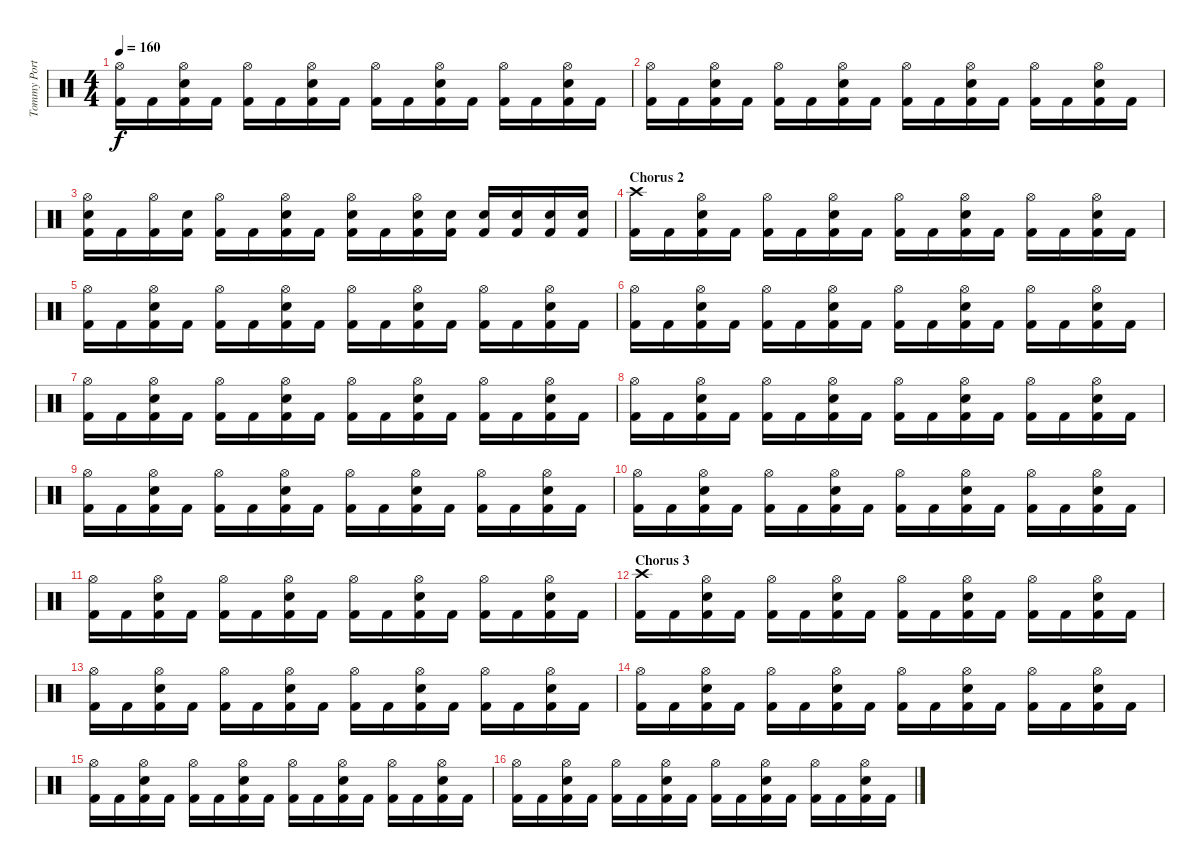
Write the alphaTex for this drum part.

\track ("Tommy Portimo" "Tommy Port") {instrument percussion}
\staff {score}
\articulation defaults
\ts (4 4)
\tempo 160
\clef neutral
\ks c
("Hi-Hat (open)" "Kick (hit) 2").16{dy f} "Kick (hit) 2".16 ("Hi-Hat (open)" "Snare (hit) 2" "Kick (hit) 2").16 "Kick (hit) 2".16 ("Hi-Hat (open)" "Kick (hit) 2").16 "Kick (hit) 2".16 ("Hi-Hat (open)" "Snare (hit) 2" "Kick (hit) 2").16 "Kick (hit) 2".16 ("Hi-Hat (open)" "Kick (hit) 2").16 "Kick (hit) 2".16 ("Hi-Hat (open)" "Snare (hit) 2" "Kick (hit) 2").16 "Kick (hit) 2".16 ("Hi-Hat (open)" "Kick (hit) 2").16 "Kick (hit) 2".16 ("Hi-Hat (open)" "Snare (hit) 2" "Kick (hit) 2").16 "Kick (hit) 2".16 |
("Hi-Hat (open)" "Kick (hit) 2").16 "Kick (hit) 2".16 ("Hi-Hat (open)" "Snare (hit) 2" "Kick (hit) 2").16 "Kick (hit) 2".16 ("Hi-Hat (open)" "Kick (hit) 2").16 "Kick (hit) 2".16 ("Hi-Hat (open)" "Snare (hit) 2" "Kick (hit) 2").16 "Kick (hit) 2".16 ("Hi-Hat (open)" "Kick (hit) 2").16 "Kick (hit) 2".16 ("Hi-Hat (open)" "Snare (hit) 2" "Kick (hit) 2").16 "Kick (hit) 2".16 ("Hi-Hat (open)" "Kick (hit) 2").16 "Kick (hit) 2".16 ("Hi-Hat (open)" "Snare (hit) 2" "Kick (hit) 2").16 "Kick (hit) 2".16 |
("Hi-Hat (open)" "Snare (hit) 2" "Kick (hit) 2").16 "Kick (hit) 2".16 ("Hi-Hat (open)" "Kick (hit) 2").16 ("Snare (hit) 2" "Kick (hit) 2").16 ("Hi-Hat (open)" "Kick (hit) 2").16 "Kick (hit) 2".16 ("Hi-Hat (open)" "Snare (hit) 2" "Kick (hit) 2").16 "Kick (hit) 2".16 ("Hi-Hat (open)" "Snare (hit) 2" "Kick (hit) 2").16 "Kick (hit) 2".16 ("Hi-Hat (open)" "Snare (hit) 2" "Kick (hit) 2").16 ("Snare (hit) 2" "Kick (hit) 2").16 ("Snare (hit) 2" "Kick (hit) 2").16 ("Snare (hit) 2" "Kick (hit) 2").16 ("Snare (hit) 2" "Kick (hit) 2").16 ("Snare (hit) 2" "Kick (hit) 2").16 |
\section ("" "Chorus 2")
("Crash high (hit)" "Kick (hit) 2").16 "Kick (hit) 2".16 ("Hi-Hat (open)" "Snare (hit) 2" "Kick (hit) 2").16 "Kick (hit) 2".16 ("Hi-Hat (open)" "Kick (hit) 2").16 "Kick (hit) 2".16 ("Hi-Hat (open)" "Snare (hit) 2" "Kick (hit) 2").16 "Kick (hit) 2".16 ("Hi-Hat (open)" "Kick (hit) 2").16 "Kick (hit) 2".16 ("Hi-Hat (open)" "Snare (hit) 2" "Kick (hit) 2").16 "Kick (hit) 2".16 ("Hi-Hat (open)" "Kick (hit) 2").16 "Kick (hit) 2".16 ("Hi-Hat (open)" "Snare (hit) 2" "Kick (hit) 2").16 "Kick (hit) 2".16 |
("Hi-Hat (open)" "Kick (hit) 2").16 "Kick (hit) 2".16 ("Hi-Hat (open)" "Snare (hit) 2" "Kick (hit) 2").16 "Kick (hit) 2".16 ("Hi-Hat (open)" "Kick (hit) 2").16 "Kick (hit) 2".16 ("Hi-Hat (open)" "Snare (hit) 2" "Kick (hit) 2").16 "Kick (hit) 2".16 ("Hi-Hat (open)" "Kick (hit) 2").16 "Kick (hit) 2".16 ("Hi-Hat (open)" "Snare (hit) 2" "Kick (hit) 2").16 "Kick (hit) 2".16 ("Hi-Hat (open)" "Kick (hit) 2").16 "Kick (hit) 2".16 ("Hi-Hat (open)" "Snare (hit) 2" "Kick (hit) 2").16 "Kick (hit) 2".16 |
("Hi-Hat (open)" "Kick (hit) 2").16 "Kick (hit) 2".16 ("Hi-Hat (open)" "Snare (hit) 2" "Kick (hit) 2").16 "Kick (hit) 2".16 ("Hi-Hat (open)" "Kick (hit) 2").16 "Kick (hit) 2".16 ("Hi-Hat (open)" "Snare (hit) 2" "Kick (hit) 2").16 "Kick (hit) 2".16 ("Hi-Hat (open)" "Kick (hit) 2").16 "Kick (hit) 2".16 ("Hi-Hat (open)" "Snare (hit) 2" "Kick (hit) 2").16 "Kick (hit) 2".16 ("Hi-Hat (open)" "Kick (hit) 2").16 "Kick (hit) 2".16 ("Hi-Hat (open)" "Snare (hit) 2" "Kick (hit) 2").16 "Kick (hit) 2".16 |
("Hi-Hat (open)" "Kick (hit) 2").16 "Kick (hit) 2".16 ("Hi-Hat (open)" "Snare (hit) 2" "Kick (hit) 2").16 "Kick (hit) 2".16 ("Hi-Hat (open)" "Kick (hit) 2").16 "Kick (hit) 2".16 ("Hi-Hat (open)" "Snare (hit) 2" "Kick (hit) 2").16 "Kick (hit) 2".16 ("Hi-Hat (open)" "Kick (hit) 2").16 "Kick (hit) 2".16 ("Hi-Hat (open)" "Snare (hit) 2" "Kick (hit) 2").16 "Kick (hit) 2".16 ("Hi-Hat (open)" "Kick (hit) 2").16 "Kick (hit) 2".16 ("Hi-Hat (open)" "Snare (hit) 2" "Kick (hit) 2").16 "Kick (hit) 2".16 |
("Hi-Hat (open)" "Kick (hit) 2").16 "Kick (hit) 2".16 ("Hi-Hat (open)" "Snare (hit) 2" "Kick (hit) 2").16 "Kick (hit) 2".16 ("Hi-Hat (open)" "Kick (hit) 2").16 "Kick (hit) 2".16 ("Hi-Hat (open)" "Snare (hit) 2" "Kick (hit) 2").16 "Kick (hit) 2".16 ("Hi-Hat (open)" "Kick (hit) 2").16 "Kick (hit) 2".16 ("Hi-Hat (open)" "Snare (hit) 2" "Kick (hit) 2").16 "Kick (hit) 2".16 ("Hi-Hat (open)" "Kick (hit) 2").16 "Kick (hit) 2".16 ("Hi-Hat (open)" "Snare (hit) 2" "Kick (hit) 2").16 "Kick (hit) 2".16 |
("Hi-Hat (open)" "Kick (hit) 2").16 "Kick (hit) 2".16 ("Hi-Hat (open)" "Snare (hit) 2" "Kick (hit) 2").16 "Kick (hit) 2".16 ("Hi-Hat (open)" "Kick (hit) 2").16 "Kick (hit) 2".16 ("Hi-Hat (open)" "Snare (hit) 2" "Kick (hit) 2").16 "Kick (hit) 2".16 ("Hi-Hat (open)" "Kick (hit) 2").16 "Kick (hit) 2".16 ("Hi-Hat (open)" "Snare (hit) 2" "Kick (hit) 2").16 "Kick (hit) 2".16 ("Hi-Hat (open)" "Kick (hit) 2").16 "Kick (hit) 2".16 ("Hi-Hat (open)" "Snare (hit) 2" "Kick (hit) 2").16 "Kick (hit) 2".16 |
("Hi-Hat (open)" "Kick (hit) 2").16 "Kick (hit) 2".16 ("Hi-Hat (open)" "Snare (hit) 2" "Kick (hit) 2").16 "Kick (hit) 2".16 ("Hi-Hat (open)" "Kick (hit) 2").16 "Kick (hit) 2".16 ("Hi-Hat (open)" "Snare (hit) 2" "Kick (hit) 2").16 "Kick (hit) 2".16 ("Hi-Hat (open)" "Kick (hit) 2").16 "Kick (hit) 2".16 ("Hi-Hat (open)" "Snare (hit) 2" "Kick (hit) 2").16 "Kick (hit) 2".16 ("Hi-Hat (open)" "Kick (hit) 2").16 "Kick (hit) 2".16 ("Hi-Hat (open)" "Snare (hit) 2" "Kick (hit) 2").16 "Kick (hit) 2".16 |
("Hi-Hat (open)" "Kick (hit) 2").16 "Kick (hit) 2".16 ("Hi-Hat (open)" "Snare (hit) 2" "Kick (hit) 2").16 "Kick (hit) 2".16 ("Hi-Hat (open)" "Kick (hit) 2").16 "Kick (hit) 2".16 ("Hi-Hat (open)" "Snare (hit) 2" "Kick (hit) 2").16 "Kick (hit) 2".16 ("Hi-Hat (open)" "Kick (hit) 2").16 "Kick (hit) 2".16 ("Hi-Hat (open)" "Snare (hit) 2" "Kick (hit) 2").16 "Kick (hit) 2".16 ("Hi-Hat (open)" "Kick (hit) 2").16 "Kick (hit) 2".16 ("Hi-Hat (open)" "Snare (hit) 2" "Kick (hit) 2").16 "Kick (hit) 2".16 |
\section ("" "Chorus 3")
("Crash high (hit)" "Kick (hit) 2").16 "Kick (hit) 2".16 ("Hi-Hat (open)" "Snare (hit) 2" "Kick (hit) 2").16 "Kick (hit) 2".16 ("Hi-Hat (open)" "Kick (hit) 2").16 "Kick (hit) 2".16 ("Hi-Hat (open)" "Snare (hit) 2" "Kick (hit) 2").16 "Kick (hit) 2".16 ("Hi-Hat (open)" "Kick (hit) 2").16 "Kick (hit) 2".16 ("Hi-Hat (open)" "Snare (hit) 2" "Kick (hit) 2").16 "Kick (hit) 2".16 ("Hi-Hat (open)" "Kick (hit) 2").16 "Kick (hit) 2".16 ("Hi-Hat (open)" "Snare (hit) 2" "Kick (hit) 2").16 "Kick (hit) 2".16 |
("Hi-Hat (open)" "Kick (hit) 2").16 "Kick (hit) 2".16 ("Hi-Hat (open)" "Snare (hit) 2" "Kick (hit) 2").16 "Kick (hit) 2".16 ("Hi-Hat (open)" "Kick (hit) 2").16 "Kick (hit) 2".16 ("Hi-Hat (open)" "Snare (hit) 2" "Kick (hit) 2").16 "Kick (hit) 2".16 ("Hi-Hat (open)" "Kick (hit) 2").16 "Kick (hit) 2".16 ("Hi-Hat (open)" "Snare (hit) 2" "Kick (hit) 2").16 "Kick (hit) 2".16 ("Hi-Hat (open)" "Kick (hit) 2").16 "Kick (hit) 2".16 ("Hi-Hat (open)" "Snare (hit) 2" "Kick (hit) 2").16 "Kick (hit) 2".16 |
("Hi-Hat (open)" "Kick (hit) 2").16 "Kick (hit) 2".16 ("Hi-Hat (open)" "Snare (hit) 2" "Kick (hit) 2").16 "Kick (hit) 2".16 ("Hi-Hat (open)" "Kick (hit) 2").16 "Kick (hit) 2".16 ("Hi-Hat (open)" "Snare (hit) 2" "Kick (hit) 2").16 "Kick (hit) 2".16 ("Hi-Hat (open)" "Kick (hit) 2").16 "Kick (hit) 2".16 ("Hi-Hat (open)" "Snare (hit) 2" "Kick (hit) 2").16 "Kick (hit) 2".16 ("Hi-Hat (open)" "Kick (hit) 2").16 "Kick (hit) 2".16 ("Hi-Hat (open)" "Snare (hit) 2" "Kick (hit) 2").16 "Kick (hit) 2".16 |
("Hi-Hat (open)" "Kick (hit) 2").16 "Kick (hit) 2".16 ("Hi-Hat (open)" "Snare (hit) 2" "Kick (hit) 2").16 "Kick (hit) 2".16 ("Hi-Hat (open)" "Kick (hit) 2").16 "Kick (hit) 2".16 ("Hi-Hat (open)" "Snare (hit) 2" "Kick (hit) 2").16 "Kick (hit) 2".16 ("Hi-Hat (open)" "Kick (hit) 2").16 "Kick (hit) 2".16 ("Hi-Hat (open)" "Snare (hit) 2" "Kick (hit) 2").16 "Kick (hit) 2".16 ("Hi-Hat (open)" "Kick (hit) 2").16 "Kick (hit) 2".16 ("Hi-Hat (open)" "Snare (hit) 2" "Kick (hit) 2").16 "Kick (hit) 2".16 |
("Hi-Hat (open)" "Kick (hit) 2").16 "Kick (hit) 2".16 ("Hi-Hat (open)" "Snare (hit) 2" "Kick (hit) 2").16 "Kick (hit) 2".16 ("Hi-Hat (open)" "Kick (hit) 2").16 "Kick (hit) 2".16 ("Hi-Hat (open)" "Snare (hit) 2" "Kick (hit) 2").16 "Kick (hit) 2".16 ("Hi-Hat (open)" "Kick (hit) 2").16 "Kick (hit) 2".16 ("Hi-Hat (open)" "Snare (hit) 2" "Kick (hit) 2").16 "Kick (hit) 2".16 ("Hi-Hat (open)" "Kick (hit) 2").16 "Kick (hit) 2".16 ("Hi-Hat (open)" "Snare (hit) 2" "Kick (hit) 2").16 "Kick (hit) 2".16
